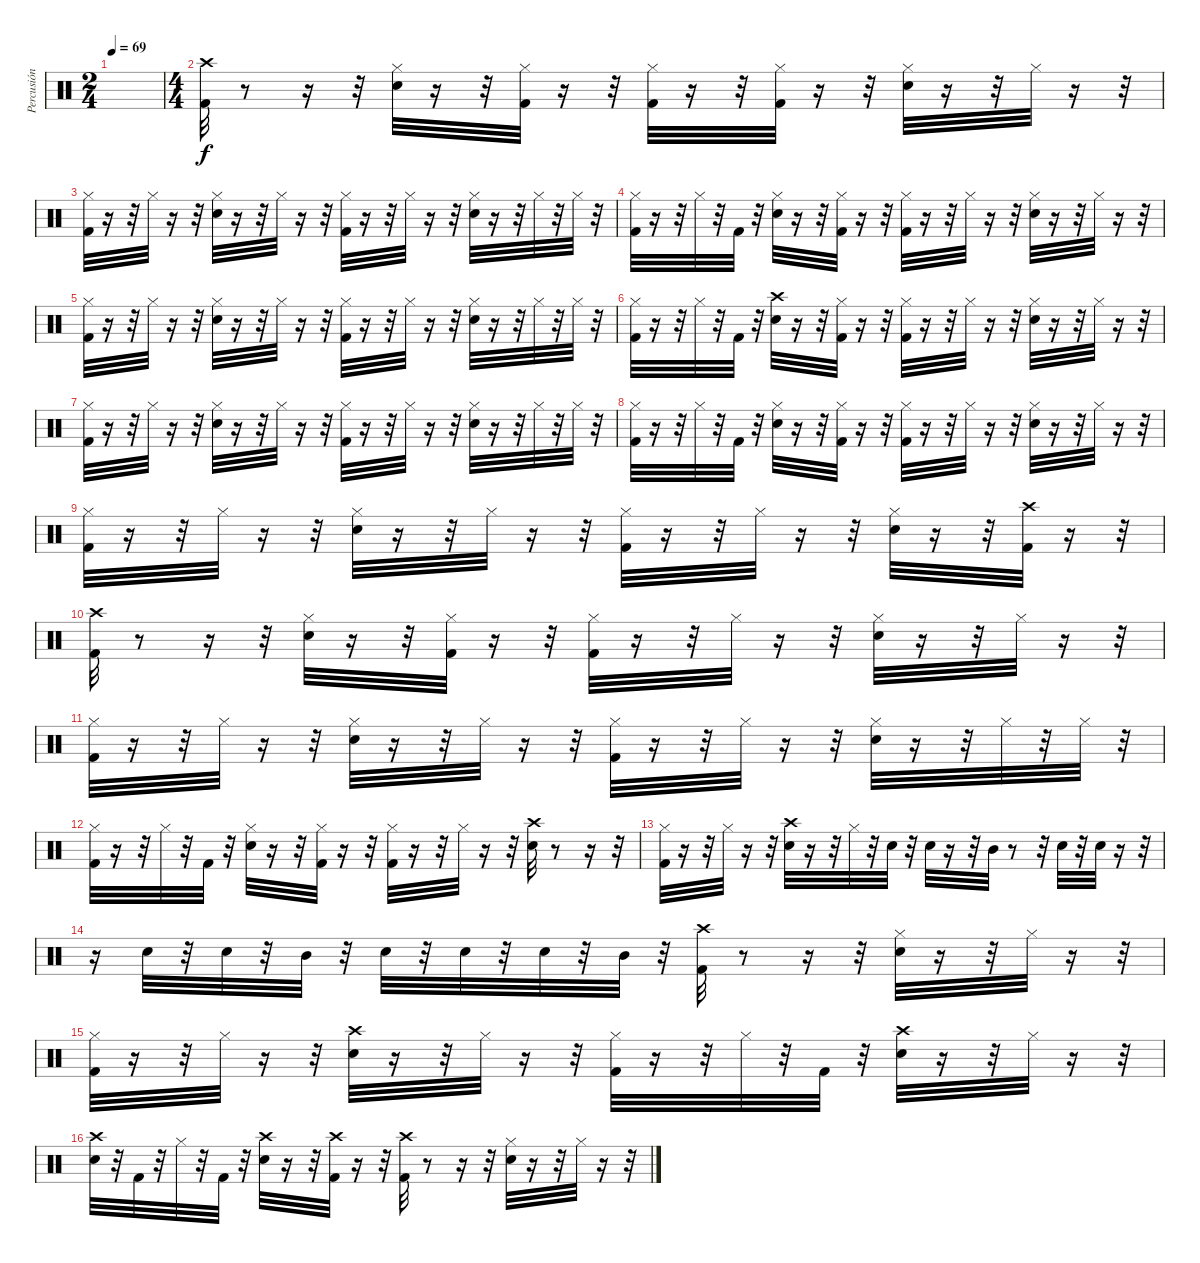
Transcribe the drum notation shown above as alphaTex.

\track ("Percusión" "Percusión") {instrument percussion}
\staff {score}
\articulation defaults
\ts (2 4)
\tempo 69
\clef neutral
\ks c
|
\ts (4 4)
("Kick (hit) 2" "Crash high (hit)").32 r.8 r.16 r.32 ("Hi-Hat (closed)" "Snare (hit) 2").32 r.16 r.32 ("Hi-Hat (closed)" "Kick (hit) 2").32 r.16 r.32 ("Hi-Hat (closed)" "Kick (hit) 2").32 r.16 r.32 ("Hi-Hat (closed)" "Kick (hit) 2").32 r.16 r.32 ("Hi-Hat (closed)" "Snare (hit) 2").32 r.16 r.32 "Hi-Hat (closed)".32 r.16 r.32 |
("Hi-Hat (closed)" "Kick (hit) 2").32 r.16 r.32 "Hi-Hat (closed)".32 r.16 r.32 ("Snare (hit) 2" "Hi-Hat (closed)").32 r.16 r.32 "Hi-Hat (closed)".32 r.16 r.32 ("Hi-Hat (closed)" "Kick (hit) 2").32 r.16 r.32 "Hi-Hat (closed)".32 r.16 r.32 ("Hi-Hat (closed)" "Snare (hit) 2").32 r.16 r.32 "Hi-Hat (closed)".32 r.32 "Hi-Hat (closed)".32 r.32 |
("Hi-Hat (closed)" "Kick (hit) 2").32 r.16 r.32 "Hi-Hat (closed)".32 r.32 "Kick (hit) 2".32 r.32 ("Snare (hit) 2" "Hi-Hat (closed)").32 r.16 r.32 ("Kick (hit) 2" "Hi-Hat (closed)").32 r.16 r.32 ("Hi-Hat (closed)" "Kick (hit) 2").32 r.16 r.32 "Hi-Hat (closed)".32 r.16 r.32 ("Snare (hit) 2" "Hi-Hat (closed)").32 r.16 r.32 "Hi-Hat (closed)".32 r.16 r.32 |
("Hi-Hat (closed)" "Kick (hit) 2").32 r.16 r.32 "Hi-Hat (closed)".32 r.16 r.32 ("Snare (hit) 2" "Hi-Hat (closed)").32 r.16 r.32 "Hi-Hat (closed)".32 r.16 r.32 ("Kick (hit) 2" "Hi-Hat (closed)").32 r.16 r.32 "Hi-Hat (closed)".32 r.16 r.32 ("Hi-Hat (closed)" "Snare (hit) 2").32 r.16 r.32 "Hi-Hat (closed)".32 r.32 "Hi-Hat (closed)".32 r.32 |
("Hi-Hat (closed)" "Kick (hit) 2").32 r.16 r.32 "Hi-Hat (closed)".32 r.32 "Kick (hit) 2".32 r.32 ("Crash high (hit)" "Snare (hit) 2").32 r.16 r.32 ("Hi-Hat (closed)" "Kick (hit) 2").32 r.16 r.32 ("Hi-Hat (closed)" "Kick (hit) 2").32 r.16 r.32 "Hi-Hat (closed)".32 r.16 r.32 ("Snare (hit) 2" "Hi-Hat (closed)").32 r.16 r.32 "Hi-Hat (closed)".32 r.16 r.32 |
("Hi-Hat (closed)" "Kick (hit) 2").32 r.16 r.32 "Hi-Hat (closed)".32 r.16 r.32 ("Snare (hit) 2" "Hi-Hat (closed)").32 r.16 r.32 "Hi-Hat (closed)".32 r.16 r.32 ("Kick (hit) 2" "Hi-Hat (closed)").32 r.16 r.32 "Hi-Hat (closed)".32 r.16 r.32 ("Hi-Hat (closed)" "Snare (hit) 2").32 r.16 r.32 "Hi-Hat (closed)".32 r.32 "Hi-Hat (closed)".32 r.32 |
("Hi-Hat (closed)" "Kick (hit) 2").32 r.16 r.32 "Hi-Hat (closed)".32 r.32 "Kick (hit) 2".32 r.32 ("Snare (hit) 2" "Hi-Hat (closed)").32 r.16 r.32 ("Kick (hit) 2" "Hi-Hat (closed)").32 r.16 r.32 ("Hi-Hat (closed)" "Kick (hit) 2").32 r.16 r.32 "Hi-Hat (closed)".32 r.16 r.32 ("Snare (hit) 2" "Hi-Hat (closed)").32 r.16 r.32 "Hi-Hat (closed)".32 r.16 r.32 |
("Hi-Hat (closed)" "Kick (hit) 2").32 r.16 r.32 "Hi-Hat (closed)".32 r.16 r.32 ("Snare (hit) 2" "Hi-Hat (closed)").32 r.16 r.32 "Hi-Hat (closed)".32 r.16 r.32 ("Hi-Hat (closed)" "Kick (hit) 2").32 r.16 r.32 "Hi-Hat (closed)".32 r.16 r.32 ("Snare (hit) 2" "Hi-Hat (closed)").32 r.16 r.32 ("Crash high (hit)" "Kick (hit) 2").32 r.16 r.32 |
("Kick (hit) 2" "Crash high (hit)").32 r.8 r.16 r.32 ("Hi-Hat (closed)" "Snare (hit) 2").32 r.16 r.32 ("Hi-Hat (closed)" "Kick (hit) 2").32 r.16 r.32 ("Hi-Hat (closed)" "Kick (hit) 2").32 r.16 r.32 "Hi-Hat (closed)".32 r.16 r.32 ("Snare (hit) 2" "Hi-Hat (closed)").32 r.16 r.32 "Hi-Hat (closed)".32 r.16 r.32 |
("Kick (hit) 2" "Hi-Hat (closed)").32 r.16 r.32 "Hi-Hat (closed)".32 r.16 r.32 ("Snare (hit) 2" "Hi-Hat (closed)").32 r.16 r.32 "Hi-Hat (closed)".32 r.16 r.32 ("Hi-Hat (closed)" "Kick (hit) 2").32 r.16 r.32 "Hi-Hat (closed)".32 r.16 r.32 ("Snare (hit) 2" "Hi-Hat (closed)").32 r.16 r.32 "Hi-Hat (closed)".32 r.32 "Hi-Hat (closed)".32 r.32 |
("Hi-Hat (closed)" "Kick (hit) 2").32 r.16 r.32 "Hi-Hat (closed)".32 r.32 "Kick (hit) 2".32 r.32 ("Snare (hit) 2" "Hi-Hat (closed)").32 r.16 r.32 ("Hi-Hat (closed)" "Kick (hit) 2").32 r.16 r.32 ("Hi-Hat (closed)" "Kick (hit) 2").32 r.16 r.32 "Hi-Hat (closed)".32 r.16 r.32 ("Crash high (hit)" "Snare (hit) 2").32 r.8 r.16 r.32 |
("Kick (hit) 2" "Hi-Hat (closed)").32 r.16 r.32 "Hi-Hat (closed)".32 r.16 r.32 ("Crash high (hit)" "Snare (hit) 2").32 r.16 r.32 "Hi-Hat (closed)".32 r.32 "Snare (hit) 2".32 r.32 "Snare (hit) 2".32 r.16 r.32 "Mid Tom (hit)".32 r.8 r.32 "Snare (hit) 2".32 r.32 "Snare (hit) 2".32 r.16 r.32 |
r.16 "Snare (hit) 2".32 r.32 "Snare (hit) 2".32 r.32 "Mid Tom (hit)".32 r.32 "Snare (hit) 2".32 r.32 "Snare (hit) 2".32 r.32 "Snare (hit) 2".32 r.32 "Mid Tom (hit)".32 r.32 ("Crash high (hit)" "Kick (hit) 2").32 r.8 r.16 r.32 ("Hi-Hat (closed)" "Snare (hit) 2").32 r.16 r.32 "Hi-Hat (closed)".32 r.16 r.32 |
("Kick (hit) 2" "Hi-Hat (closed)").32 r.16 r.32 "Hi-Hat (closed)".32 r.16 r.32 ("Crash high (hit)" "Snare (hit) 2").32 r.16 r.32 "Hi-Hat (closed)".32 r.16 r.32 ("Hi-Hat (closed)" "Kick (hit) 2").32 r.16 r.32 "Hi-Hat (closed)".32 r.32 "Kick (hit) 2".32 r.32 ("Crash high (hit)" "Snare (hit) 2").32 r.16 r.32 "Hi-Hat (closed)".32 r.16 r.32 |
("Crash high (hit)" "Snare (hit) 2").32 r.32 "Kick (hit) 2".32 r.32 "Hi-Hat (closed)".32 r.32 "Kick (hit) 2".32 r.32 ("Crash high (hit)" "Snare (hit) 2").32 r.16 r.32 ("Crash high (hit)" "Kick (hit) 2").32 r.16 r.32 ("Crash high (hit)" "Kick (hit) 2").32 r.8 r.16 r.32 ("Hi-Hat (closed)" "Snare (hit) 2").32 r.16 r.32 "Hi-Hat (closed)".32 r.16 r.32
